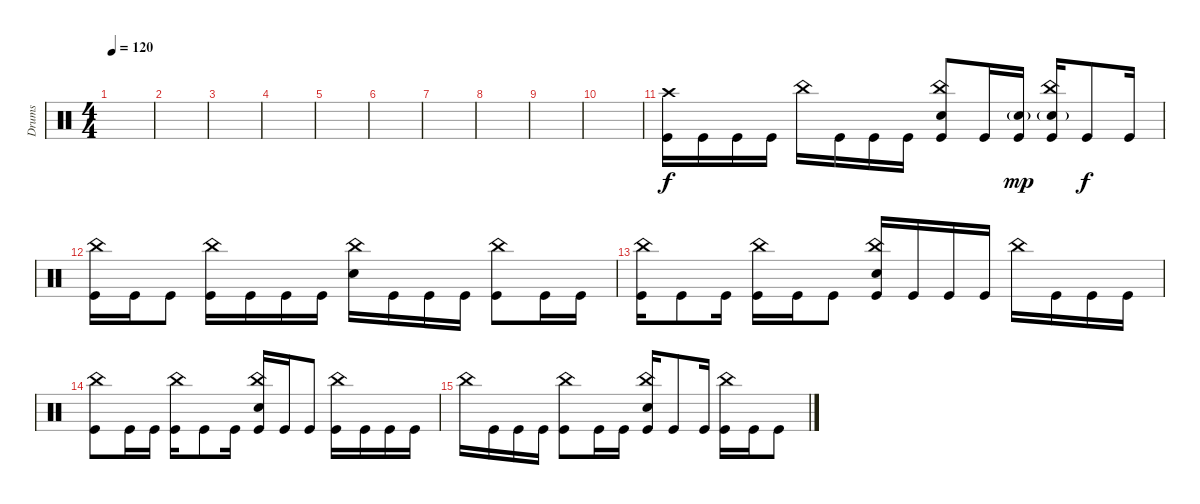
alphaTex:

\track ("Drums" "Drums") {instrument percussion}
\staff
\articulation defaults
\ts (4 4)
\tempo 120
\clef neutral
\ks c
|
|
|
|
|
|
|
|
|
|
("Crash high (hit)" "Kick (hit)").16 "Kick (hit)".16 "Kick (hit)".16 "Kick (hit)".16 "China (hit)".16 "Kick (hit)".16 "Kick (hit)".16 "Kick (hit)".16 ("China (hit)" "Electric Snare (hit)" "Kick (hit)").8 "Kick (hit)".16 ("Electric Snare (hit)"{g} "Kick (hit)").16{dy mp} ("China (hit)" "Electric Snare (hit)"{g} "Kick (hit)").16 "Kick (hit)".8{dy f} "Kick (hit)".16 |
("China (hit)" "Kick (hit)").16 "Kick (hit)".16 "Kick (hit)".8 ("China (hit)" "Kick (hit)").16 "Kick (hit)".16 "Kick (hit)".16 "Kick (hit)".16 ("China (hit)" "Electric Snare (hit)").16 "Kick (hit)".16 "Kick (hit)".16 "Kick (hit)".16 ("China (hit)" "Kick (hit)").8 "Kick (hit)".16 "Kick (hit)".16 |
("China (hit)" "Kick (hit)").16 "Kick (hit)".8 "Kick (hit)".16 ("China (hit)" "Kick (hit)").16 "Kick (hit)".16 "Kick (hit)".8 ("China (hit)" "Electric Snare (hit)" "Kick (hit)").16 "Kick (hit)".16 "Kick (hit)".16 "Kick (hit)".16 "China (hit)".16 "Kick (hit)".16 "Kick (hit)".16 "Kick (hit)".16 |
("China (hit)" "Kick (hit)").8 "Kick (hit)".16 "Kick (hit)".16 ("China (hit)" "Kick (hit)").16 "Kick (hit)".8 "Kick (hit)".16 ("China (hit)" "Electric Snare (hit)" "Kick (hit)").16 "Kick (hit)".16 "Kick (hit)".8 ("China (hit)" "Kick (hit)").16 "Kick (hit)".16 "Kick (hit)".16 "Kick (hit)".16 |
"China (hit)".16 "Kick (hit)".16 "Kick (hit)".16 "Kick (hit)".16 ("China (hit)" "Kick (hit)").8 "Kick (hit)".16 "Kick (hit)".16 ("China (hit)" "Electric Snare (hit)" "Kick (hit)").16 "Kick (hit)".8 "Kick (hit)".16 ("China (hit)" "Kick (hit)").16 "Kick (hit)".16 "Kick (hit)".8
